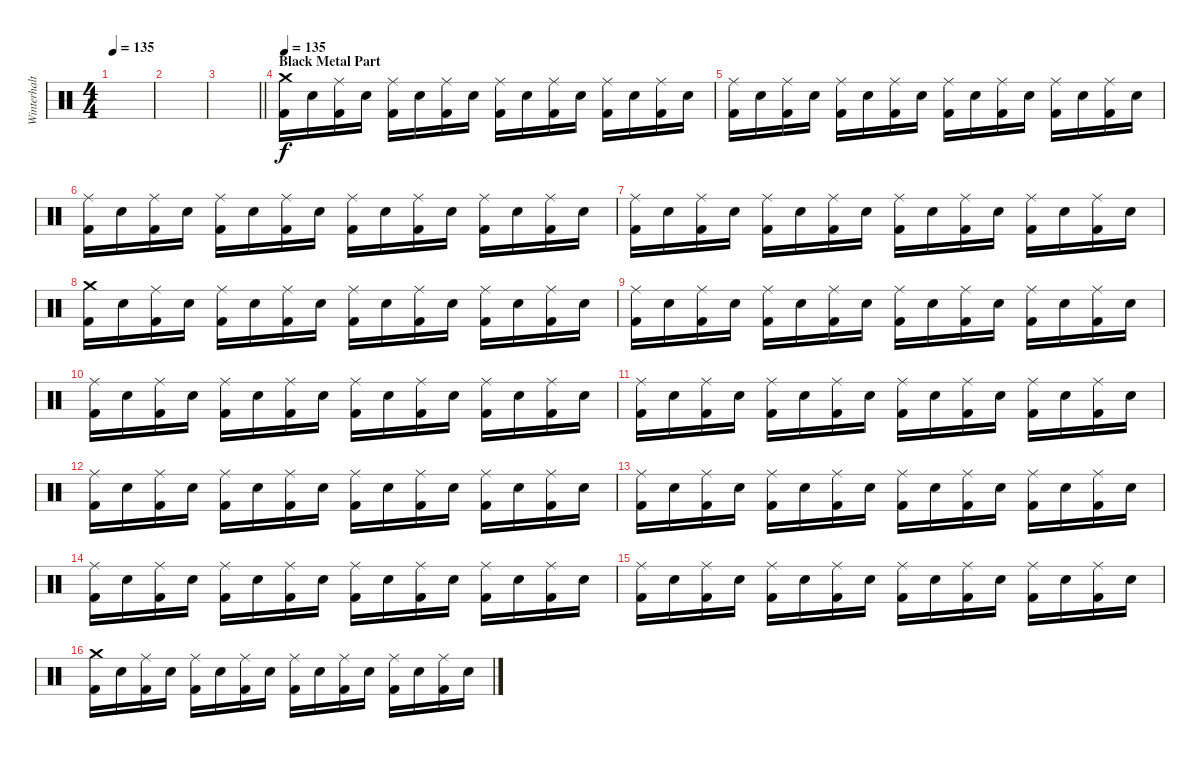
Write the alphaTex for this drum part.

\track ("Winterhalter" "Winterhalt") {instrument percussion}
\staff {score}
\articulation defaults
\ts (4 4)
\tempo 135
\clef neutral
\ks c
|
|
\barLineRight lightlight
|
\section ("" "Black Metal Part")
\tempo 135
("Crash medium (hit)" "Kick (hit) 2").16 "Snare (hit) 2".16 ("Ride (middle)" "Kick (hit) 2").16 "Snare (hit) 2".16 ("Ride (middle)" "Kick (hit) 2").16 "Snare (hit) 2".16 ("Ride (middle)" "Kick (hit) 2").16 "Snare (hit) 2".16 ("Ride (middle)" "Kick (hit) 2").16 "Snare (hit) 2".16 ("Ride (middle)" "Kick (hit) 2").16 "Snare (hit) 2".16 ("Ride (middle)" "Kick (hit) 2").16 "Snare (hit) 2".16 ("Ride (middle)" "Kick (hit) 2").16 "Snare (hit) 2".16 |
("Ride (middle)" "Kick (hit) 2").16 "Snare (hit) 2".16 ("Ride (middle)" "Kick (hit) 2").16 "Snare (hit) 2".16 ("Ride (middle)" "Kick (hit) 2").16 "Snare (hit) 2".16 ("Ride (middle)" "Kick (hit) 2").16 "Snare (hit) 2".16 ("Ride (middle)" "Kick (hit) 2").16 "Snare (hit) 2".16 ("Ride (middle)" "Kick (hit) 2").16 "Snare (hit) 2".16 ("Ride (middle)" "Kick (hit) 2").16 "Snare (hit) 2".16 ("Ride (middle)" "Kick (hit) 2").16 "Snare (hit) 2".16 |
("Ride (middle)" "Kick (hit) 2").16 "Snare (hit) 2".16 ("Ride (middle)" "Kick (hit) 2").16 "Snare (hit) 2".16 ("Ride (middle)" "Kick (hit) 2").16 "Snare (hit) 2".16 ("Ride (middle)" "Kick (hit) 2").16 "Snare (hit) 2".16 ("Ride (middle)" "Kick (hit) 2").16 "Snare (hit) 2".16 ("Ride (middle)" "Kick (hit) 2").16 "Snare (hit) 2".16 ("Ride (middle)" "Kick (hit) 2").16 "Snare (hit) 2".16 ("Ride (middle)" "Kick (hit) 2").16 "Snare (hit) 2".16 |
("Ride (middle)" "Kick (hit) 2").16 "Snare (hit) 2".16 ("Ride (middle)" "Kick (hit) 2").16 "Snare (hit) 2".16 ("Ride (middle)" "Kick (hit) 2").16 "Snare (hit) 2".16 ("Ride (middle)" "Kick (hit) 2").16 "Snare (hit) 2".16 ("Ride (middle)" "Kick (hit) 2").16 "Snare (hit) 2".16 ("Ride (middle)" "Kick (hit) 2").16 "Snare (hit) 2".16 ("Ride (middle)" "Kick (hit) 2").16 "Snare (hit) 2".16 ("Ride (middle)" "Kick (hit) 2").16 "Snare (hit) 2".16 |
("Crash medium (hit)" "Kick (hit) 2").16 "Snare (hit) 2".16 ("Ride (middle)" "Kick (hit) 2").16 "Snare (hit) 2".16 ("Ride (middle)" "Kick (hit) 2").16 "Snare (hit) 2".16 ("Ride (middle)" "Kick (hit) 2").16 "Snare (hit) 2".16 ("Ride (middle)" "Kick (hit) 2").16 "Snare (hit) 2".16 ("Ride (middle)" "Kick (hit) 2").16 "Snare (hit) 2".16 ("Ride (middle)" "Kick (hit) 2").16 "Snare (hit) 2".16 ("Ride (middle)" "Kick (hit) 2").16 "Snare (hit) 2".16 |
("Ride (middle)" "Kick (hit) 2").16 "Snare (hit) 2".16 ("Ride (middle)" "Kick (hit) 2").16 "Snare (hit) 2".16 ("Ride (middle)" "Kick (hit) 2").16 "Snare (hit) 2".16 ("Ride (middle)" "Kick (hit) 2").16 "Snare (hit) 2".16 ("Ride (middle)" "Kick (hit) 2").16 "Snare (hit) 2".16 ("Ride (middle)" "Kick (hit) 2").16 "Snare (hit) 2".16 ("Ride (middle)" "Kick (hit) 2").16 "Snare (hit) 2".16 ("Ride (middle)" "Kick (hit) 2").16 "Snare (hit) 2".16 |
("Ride (middle)" "Kick (hit) 2").16 "Snare (hit) 2".16 ("Ride (middle)" "Kick (hit) 2").16 "Snare (hit) 2".16 ("Ride (middle)" "Kick (hit) 2").16 "Snare (hit) 2".16 ("Ride (middle)" "Kick (hit) 2").16 "Snare (hit) 2".16 ("Ride (middle)" "Kick (hit) 2").16 "Snare (hit) 2".16 ("Ride (middle)" "Kick (hit) 2").16 "Snare (hit) 2".16 ("Ride (middle)" "Kick (hit) 2").16 "Snare (hit) 2".16 ("Ride (middle)" "Kick (hit) 2").16 "Snare (hit) 2".16 |
("Ride (middle)" "Kick (hit) 2").16 "Snare (hit) 2".16 ("Ride (middle)" "Kick (hit) 2").16 "Snare (hit) 2".16 ("Ride (middle)" "Kick (hit) 2").16 "Snare (hit) 2".16 ("Ride (middle)" "Kick (hit) 2").16 "Snare (hit) 2".16 ("Ride (middle)" "Kick (hit) 2").16 "Snare (hit) 2".16 ("Ride (middle)" "Kick (hit) 2").16 "Snare (hit) 2".16 ("Ride (middle)" "Kick (hit) 2").16 "Snare (hit) 2".16 ("Ride (middle)" "Kick (hit) 2").16 "Snare (hit) 2".16 |
("Ride (middle)" "Kick (hit) 2").16 "Snare (hit) 2".16 ("Ride (middle)" "Kick (hit) 2").16 "Snare (hit) 2".16 ("Ride (middle)" "Kick (hit) 2").16 "Snare (hit) 2".16 ("Ride (middle)" "Kick (hit) 2").16 "Snare (hit) 2".16 ("Ride (middle)" "Kick (hit) 2").16 "Snare (hit) 2".16 ("Ride (middle)" "Kick (hit) 2").16 "Snare (hit) 2".16 ("Ride (middle)" "Kick (hit) 2").16 "Snare (hit) 2".16 ("Ride (middle)" "Kick (hit) 2").16 "Snare (hit) 2".16 |
("Ride (middle)" "Kick (hit) 2").16 "Snare (hit) 2".16 ("Ride (middle)" "Kick (hit) 2").16 "Snare (hit) 2".16 ("Ride (middle)" "Kick (hit) 2").16 "Snare (hit) 2".16 ("Ride (middle)" "Kick (hit) 2").16 "Snare (hit) 2".16 ("Ride (middle)" "Kick (hit) 2").16 "Snare (hit) 2".16 ("Ride (middle)" "Kick (hit) 2").16 "Snare (hit) 2".16 ("Ride (middle)" "Kick (hit) 2").16 "Snare (hit) 2".16 ("Ride (middle)" "Kick (hit) 2").16 "Snare (hit) 2".16 |
("Ride (middle)" "Kick (hit) 2").16 "Snare (hit) 2".16 ("Ride (middle)" "Kick (hit) 2").16 "Snare (hit) 2".16 ("Ride (middle)" "Kick (hit) 2").16 "Snare (hit) 2".16 ("Ride (middle)" "Kick (hit) 2").16 "Snare (hit) 2".16 ("Ride (middle)" "Kick (hit) 2").16 "Snare (hit) 2".16 ("Ride (middle)" "Kick (hit) 2").16 "Snare (hit) 2".16 ("Ride (middle)" "Kick (hit) 2").16 "Snare (hit) 2".16 ("Ride (middle)" "Kick (hit) 2").16 "Snare (hit) 2".16 |
("Ride (middle)" "Kick (hit) 2").16 "Snare (hit) 2".16 ("Ride (middle)" "Kick (hit) 2").16 "Snare (hit) 2".16 ("Ride (middle)" "Kick (hit) 2").16 "Snare (hit) 2".16 ("Ride (middle)" "Kick (hit) 2").16 "Snare (hit) 2".16 ("Ride (middle)" "Kick (hit) 2").16 "Snare (hit) 2".16 ("Ride (middle)" "Kick (hit) 2").16 "Snare (hit) 2".16 ("Ride (middle)" "Kick (hit) 2").16 "Snare (hit) 2".16 ("Ride (middle)" "Kick (hit) 2").16 "Snare (hit) 2".16 |
("Crash medium (hit)" "Kick (hit) 2").16 "Snare (hit) 2".16 ("Ride (middle)" "Kick (hit) 2").16 "Snare (hit) 2".16 ("Ride (middle)" "Kick (hit) 2").16 "Snare (hit) 2".16 ("Ride (middle)" "Kick (hit) 2").16 "Snare (hit) 2".16 ("Ride (middle)" "Kick (hit) 2").16 "Snare (hit) 2".16 ("Ride (middle)" "Kick (hit) 2").16 "Snare (hit) 2".16 ("Ride (middle)" "Kick (hit) 2").16 "Snare (hit) 2".16 ("Ride (middle)" "Kick (hit) 2").16 "Snare (hit) 2".16
